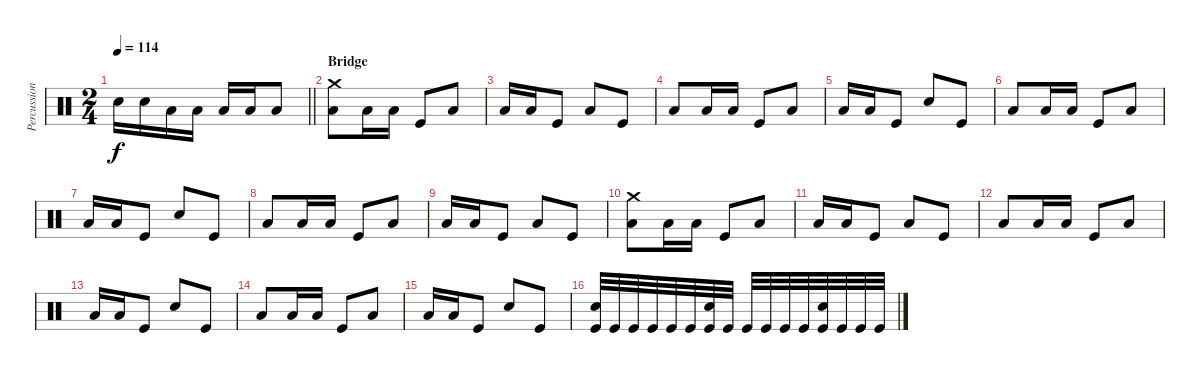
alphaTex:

\track ("Percussion" "Percussion") {instrument percussion}
\staff {score}
\articulation defaults
\ts (2 4)
\tempo 114
\clef neutral
\barLineRight lightlight
\ks c "Electric Snare (hit)".16{dy f} "Electric Snare (hit)".16 "Low Floor Tom (hit)".16 "Low Floor Tom (hit)".16 "Low Floor Tom (hit)".16 "Low Floor Tom (hit)".16 "Low Floor Tom (hit)".8
|
\section ("" "Bridge")
("Crash medium (hit)" "Low Floor Tom (hit)").8 "Low Floor Tom (hit)".16 "Low Floor Tom (hit)".16 "Kick (hit)".8 "Low Floor Tom (hit)".8 |
"Low Floor Tom (hit)".16 "Low Floor Tom (hit)".16 "Kick (hit)".8 "Low Floor Tom (hit)".8 "Kick (hit)".8 |
"Low Floor Tom (hit)".8 "Low Floor Tom (hit)".16 "Low Floor Tom (hit)".16 "Kick (hit)".8 "Low Floor Tom (hit)".8 |
"Low Floor Tom (hit)".16 "Low Floor Tom (hit)".16 "Kick (hit)".8 "Electric Snare (hit)".8 "Kick (hit)".8 |
"Low Floor Tom (hit)".8 "Low Floor Tom (hit)".16 "Low Floor Tom (hit)".16 "Kick (hit)".8 "Low Floor Tom (hit)".8 |
"Low Floor Tom (hit)".16 "Low Floor Tom (hit)".16 "Kick (hit)".8 "Electric Snare (hit)".8 "Kick (hit)".8 |
"Low Floor Tom (hit)".8 "Low Floor Tom (hit)".16 "Low Floor Tom (hit)".16 "Kick (hit)".8 "Low Floor Tom (hit)".8 |
"Low Floor Tom (hit)".16 "Low Floor Tom (hit)".16 "Kick (hit)".8 "Low Floor Tom (hit)".8 "Kick (hit)".8 |
("Crash medium (hit)" "Low Floor Tom (hit)").8 "Low Floor Tom (hit)".16 "Low Floor Tom (hit)".16 "Kick (hit)".8 "Low Floor Tom (hit)".8 |
"Low Floor Tom (hit)".16 "Low Floor Tom (hit)".16 "Kick (hit)".8 "Low Floor Tom (hit)".8 "Kick (hit)".8 |
"Low Floor Tom (hit)".8 "Low Floor Tom (hit)".16 "Low Floor Tom (hit)".16 "Kick (hit)".8 "Low Floor Tom (hit)".8 |
"Low Floor Tom (hit)".16 "Low Floor Tom (hit)".16 "Kick (hit)".8 "Electric Snare (hit)".8 "Kick (hit)".8 |
"Low Floor Tom (hit)".8 "Low Floor Tom (hit)".16 "Low Floor Tom (hit)".16 "Kick (hit)".8 "Low Floor Tom (hit)".8 |
"Low Floor Tom (hit)".16 "Low Floor Tom (hit)".16 "Kick (hit)".8 "Electric Snare (hit)".8 "Kick (hit)".8 |
("Electric Snare (hit)" "Kick (hit)").32 "Kick (hit)".32 "Kick (hit)".32 "Kick (hit)".32 "Kick (hit)".32 "Kick (hit)".32 ("Electric Snare (hit)" "Kick (hit)").32 "Kick (hit)".32 "Kick (hit)".32 "Kick (hit)".32 "Kick (hit)".32 "Kick (hit)".32 ("Electric Snare (hit)" "Kick (hit)").32 "Kick (hit)".32 "Kick (hit)".32 "Kick (hit)".32
